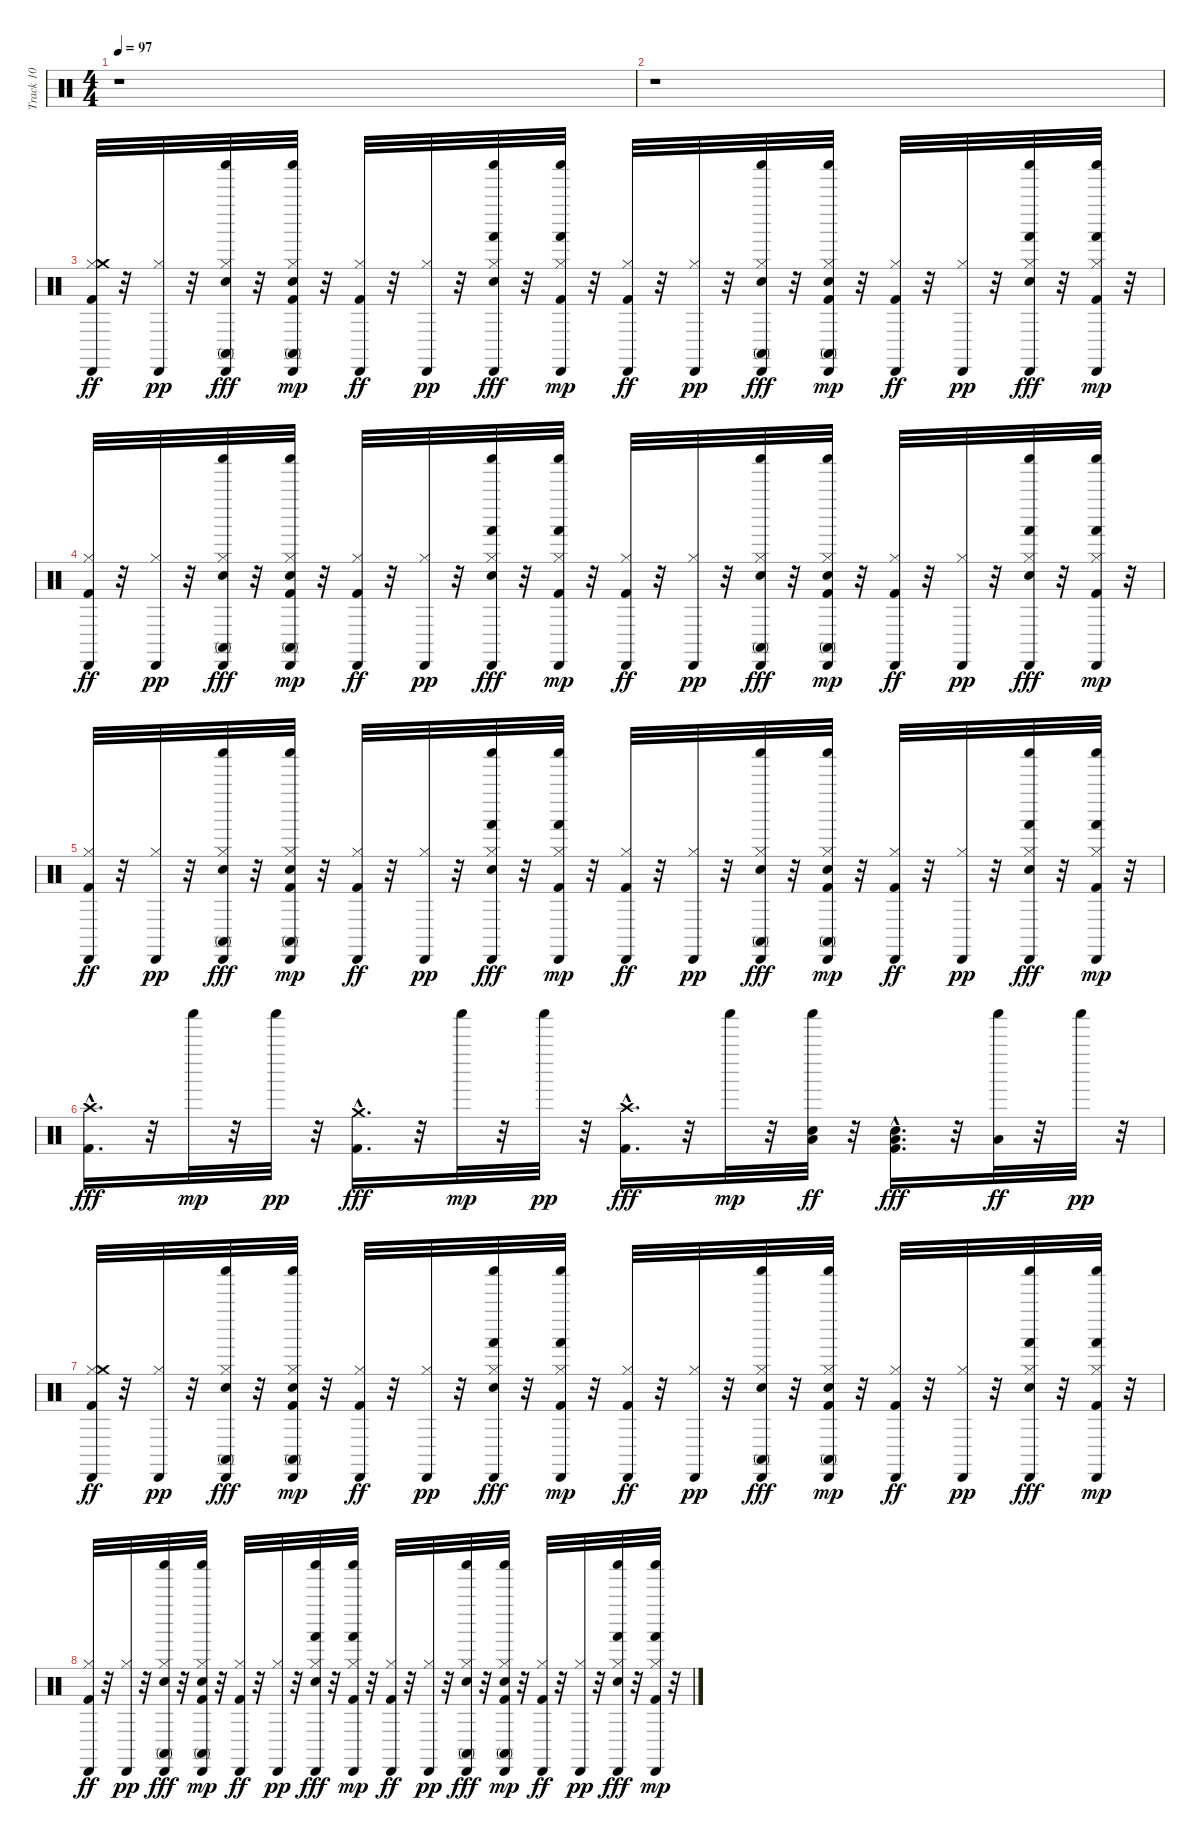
\track ("Track 10" "Track 10") {instrument percussion}
\staff {score}
\articulation defaults
\ts (4 4)
\tempo 97
\clef neutral
\ks c
r.1{dy ff} |
r.1 |
("Hi-Hat (closed)" "Cabasa (hit)" "Crash medium (hit)" "Kick (hit) 2").32 r.32 ("Hi-Hat (closed)" "Cabasa (hit)").32{dy pp} r.32 ("Hi-Hat (closed)" "Shaker (hit)" "Conga high (mute)" "Cabasa (hit)" "Snare (hit) 2").32{dy fff} r.32 ("Hi-Hat (closed)" "Shaker (hit)" "Conga high (mute)" "Cabasa (hit)" "Kick (hit) 2" "Snare (hit) 2").32{dy mp} r.32 ("Hi-Hat (closed)" "Cabasa (hit)" "Kick (hit) 2").32{dy ff} r.32 ("Hi-Hat (closed)" "Cabasa (hit)").32{dy pp} r.32 ("Hi-Hat (closed)" "Shaker (hit)" "Hand (hit)" "Cabasa (hit)" "Snare (hit) 2").32{dy fff} r.32 ("Hi-Hat (closed)" "Shaker (hit)" "Hand (hit)" "Cabasa (hit)" "Kick (hit) 2").32{dy mp} r.32 ("Hi-Hat (closed)" "Cabasa (hit)" "Kick (hit) 2").32{dy ff} r.32 ("Hi-Hat (closed)" "Cabasa (hit)").32{dy pp} r.32 ("Hi-Hat (closed)" "Shaker (hit)" "Conga high (mute)" "Cabasa (hit)" "Snare (hit) 2").32{dy fff} r.32 ("Hi-Hat (closed)" "Shaker (hit)" "Conga high (mute)" "Cabasa (hit)" "Snare (hit) 2" "Kick (hit) 2").32{dy mp} r.32 ("Hi-Hat (closed)" "Cabasa (hit)" "Kick (hit) 2").32{dy ff} r.32 ("Hi-Hat (closed)" "Cabasa (hit)").32{dy pp} r.32 ("Hi-Hat (closed)" "Shaker (hit)" "Hand (hit)" "Cabasa (hit)" "Snare (hit) 2").32{dy fff} r.32 ("Hi-Hat (closed)" "Shaker (hit)" "Hand (hit)" "Cabasa (hit)" "Kick (hit) 2").32{dy mp} r.32 |
("Hi-Hat (closed)" "Cabasa (hit)" "Kick (hit) 2").32{dy ff} r.32 ("Hi-Hat (closed)" "Cabasa (hit)").32{dy pp} r.32 ("Hi-Hat (closed)" "Shaker (hit)" "Conga high (mute)" "Cabasa (hit)" "Snare (hit) 2").32{dy fff} r.32 ("Hi-Hat (closed)" "Shaker (hit)" "Conga high (mute)" "Cabasa (hit)" "Snare (hit) 2" "Kick (hit) 2").32{dy mp} r.32 ("Hi-Hat (closed)" "Cabasa (hit)" "Kick (hit) 2").32{dy ff} r.32 ("Hi-Hat (closed)" "Cabasa (hit)").32{dy pp} r.32 ("Hi-Hat (closed)" "Shaker (hit)" "Hand (hit)" "Cabasa (hit)" "Snare (hit) 2").32{dy fff} r.32 ("Hi-Hat (closed)" "Shaker (hit)" "Hand (hit)" "Cabasa (hit)" "Kick (hit) 2").32{dy mp} r.32 ("Hi-Hat (closed)" "Cabasa (hit)" "Kick (hit) 2").32{dy ff} r.32 ("Hi-Hat (closed)" "Cabasa (hit)").32{dy pp} r.32 ("Hi-Hat (closed)" "Shaker (hit)" "Conga high (mute)" "Cabasa (hit)" "Snare (hit) 2").32{dy fff} r.32 ("Hi-Hat (closed)" "Shaker (hit)" "Conga high (mute)" "Cabasa (hit)" "Snare (hit) 2" "Kick (hit) 2").32{dy mp} r.32 ("Hi-Hat (closed)" "Cabasa (hit)" "Kick (hit) 2").32{dy ff} r.32 ("Hi-Hat (closed)" "Cabasa (hit)").32{dy pp} r.32 ("Hi-Hat (closed)" "Shaker (hit)" "Hand (hit)" "Cabasa (hit)" "Snare (hit) 2").32{dy fff} r.32 ("Hi-Hat (closed)" "Shaker (hit)" "Hand (hit)" "Cabasa (hit)" "Kick (hit) 2").32{dy mp} r.32 |
("Hi-Hat (closed)" "Cabasa (hit)" "Kick (hit) 2").32{dy ff} r.32 ("Hi-Hat (closed)" "Cabasa (hit)").32{dy pp} r.32 ("Hi-Hat (closed)" "Shaker (hit)" "Conga high (mute)" "Cabasa (hit)" "Snare (hit) 2").32{dy fff} r.32 ("Hi-Hat (closed)" "Shaker (hit)" "Conga high (mute)" "Cabasa (hit)" "Snare (hit) 2" "Kick (hit) 2").32{dy mp} r.32 ("Hi-Hat (closed)" "Cabasa (hit)" "Kick (hit) 2").32{dy ff} r.32 ("Hi-Hat (closed)" "Cabasa (hit)").32{dy pp} r.32 ("Hi-Hat (closed)" "Shaker (hit)" "Hand (hit)" "Cabasa (hit)" "Snare (hit) 2").32{dy fff} r.32 ("Hi-Hat (closed)" "Shaker (hit)" "Hand (hit)" "Cabasa (hit)" "Kick (hit) 2").32{dy mp} r.32 ("Hi-Hat (closed)" "Cabasa (hit)" "Kick (hit) 2").32{dy ff} r.32 ("Hi-Hat (closed)" "Cabasa (hit)").32{dy pp} r.32 ("Hi-Hat (closed)" "Shaker (hit)" "Conga high (mute)" "Cabasa (hit)" "Snare (hit) 2").32{dy fff} r.32 ("Hi-Hat (closed)" "Shaker (hit)" "Conga high (mute)" "Cabasa (hit)" "Snare (hit) 2" "Kick (hit) 2").32{dy mp} r.32 ("Hi-Hat (closed)" "Cabasa (hit)" "Kick (hit) 2").32{dy ff} r.32 ("Hi-Hat (closed)" "Cabasa (hit)").32{dy pp} r.32 ("Hi-Hat (closed)" "Shaker (hit)" "Hand (hit)" "Cabasa (hit)" "Snare (hit) 2").32{dy fff} r.32 ("Hi-Hat (closed)" "Shaker (hit)" "Hand (hit)" "Cabasa (hit)" "Kick (hit) 2").32{dy mp} r.32 |
("Crash high (hit)" "Kick (hit) 2"{hac}).16{d dy fff} r.32 "Shaker (hit)".32{dy mp} r.32 "Shaker (hit)".32{dy pp} r.32 ("Crash medium (hit)" "Kick (hit) 2"{hac}).16{d dy fff} r.32 "Shaker (hit)".32{dy mp} r.32 "Shaker (hit)".32{dy pp} r.32 ("Crash high (hit)" "Kick (hit) 2"{hac}).16{d dy fff} r.32 "Shaker (hit)".32{dy mp} r.32 ("Shaker (hit)" "Low Tom (hit)" "Electric Snare (hit)").32{dy ff} r.32 ("Low Tom (hit)" "Kick (hit) 2"{hac} "Electric Snare (hit)").16{d dy fff} r.32 ("Shaker (hit)" "Low Floor Tom (hit)").32{dy ff} r.32 "Shaker (hit)".32{dy pp} r.32 |
("Hi-Hat (closed)" "Cabasa (hit)" "Crash medium (hit)" "Kick (hit) 2").32{dy ff} r.32 ("Hi-Hat (closed)" "Cabasa (hit)").32{dy pp} r.32 ("Hi-Hat (closed)" "Shaker (hit)" "Conga high (mute)" "Cabasa (hit)" "Snare (hit) 2").32{dy fff} r.32 ("Hi-Hat (closed)" "Shaker (hit)" "Conga high (mute)" "Cabasa (hit)" "Snare (hit) 2" "Kick (hit) 2").32{dy mp} r.32 ("Hi-Hat (closed)" "Cabasa (hit)" "Kick (hit) 2").32{dy ff} r.32 ("Hi-Hat (closed)" "Cabasa (hit)").32{dy pp} r.32 ("Hi-Hat (closed)" "Shaker (hit)" "Hand (hit)" "Cabasa (hit)" "Snare (hit) 2").32{dy fff} r.32 ("Hi-Hat (closed)" "Shaker (hit)" "Hand (hit)" "Cabasa (hit)" "Kick (hit) 2").32{dy mp} r.32 ("Hi-Hat (closed)" "Cabasa (hit)" "Kick (hit) 2").32{dy ff} r.32 ("Hi-Hat (closed)" "Cabasa (hit)").32{dy pp} r.32 ("Hi-Hat (closed)" "Shaker (hit)" "Conga high (mute)" "Cabasa (hit)" "Snare (hit) 2").32{dy fff} r.32 ("Hi-Hat (closed)" "Shaker (hit)" "Conga high (mute)" "Cabasa (hit)" "Kick (hit) 2" "Snare (hit) 2").32{dy mp} r.32 ("Hi-Hat (closed)" "Cabasa (hit)" "Kick (hit) 2").32{dy ff} r.32 ("Hi-Hat (closed)" "Cabasa (hit)").32{dy pp} r.32 ("Hi-Hat (closed)" "Shaker (hit)" "Hand (hit)" "Cabasa (hit)" "Snare (hit) 2").32{dy fff} r.32 ("Hi-Hat (closed)" "Shaker (hit)" "Hand (hit)" "Cabasa (hit)" "Kick (hit) 2").32{dy mp} r.32 |
("Hi-Hat (closed)" "Cabasa (hit)" "Kick (hit) 2").32{dy ff} r.32 ("Hi-Hat (closed)" "Cabasa (hit)").32{dy pp} r.32 ("Hi-Hat (closed)" "Shaker (hit)" "Conga high (mute)" "Cabasa (hit)" "Snare (hit) 2").32{dy fff} r.32 ("Hi-Hat (closed)" "Shaker (hit)" "Conga high (mute)" "Cabasa (hit)" "Snare (hit) 2" "Kick (hit) 2").32{dy mp} r.32 ("Hi-Hat (closed)" "Cabasa (hit)" "Kick (hit) 2").32{dy ff} r.32 ("Hi-Hat (closed)" "Cabasa (hit)").32{dy pp} r.32 ("Hi-Hat (closed)" "Shaker (hit)" "Hand (hit)" "Cabasa (hit)" "Snare (hit) 2").32{dy fff} r.32 ("Hi-Hat (closed)" "Shaker (hit)" "Hand (hit)" "Cabasa (hit)" "Kick (hit) 2").32{dy mp} r.32 ("Hi-Hat (closed)" "Cabasa (hit)" "Kick (hit) 2").32{dy ff} r.32 ("Hi-Hat (closed)" "Cabasa (hit)").32{dy pp} r.32 ("Hi-Hat (closed)" "Shaker (hit)" "Conga high (mute)" "Cabasa (hit)" "Snare (hit) 2").32{dy fff} r.32 ("Hi-Hat (closed)" "Shaker (hit)" "Conga high (mute)" "Cabasa (hit)" "Kick (hit) 2" "Snare (hit) 2").32{dy mp} r.32 ("Hi-Hat (closed)" "Cabasa (hit)" "Kick (hit) 2").32{dy ff} r.32 ("Hi-Hat (closed)" "Cabasa (hit)").32{dy pp} r.32 ("Hi-Hat (closed)" "Shaker (hit)" "Hand (hit)" "Cabasa (hit)" "Snare (hit) 2").32{dy fff} r.32 ("Hi-Hat (closed)" "Shaker (hit)" "Hand (hit)" "Cabasa (hit)" "Kick (hit) 2").32{dy mp} r.32
